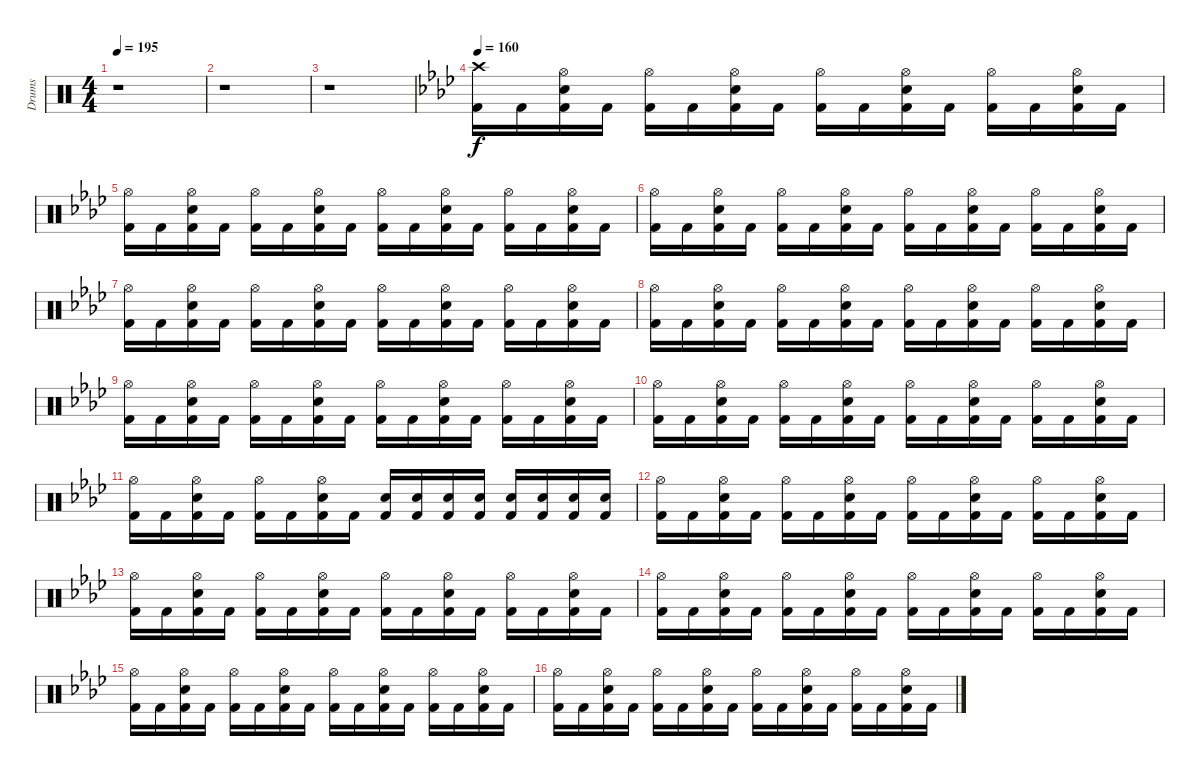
\track ("Drums" "Drums") {instrument percussion}
\staff {score}
\articulation defaults
\ts (4 4)
\tempo 195
\clef neutral
\ks c
r.1{dy f} |
r.1 |
r.1 |
\section ("" "")
\tempo 160
\ks fminor
("Kick (hit) 2" "Crash high (hit)").16 "Kick (hit) 2".16 ("Kick (hit) 2" "Electric Snare (hit)" "Hi-Hat (open)").16 "Kick (hit) 2".16 ("Kick (hit) 2" "Hi-Hat (open)").16 "Kick (hit) 2".16 ("Kick (hit) 2" "Electric Snare (hit)" "Hi-Hat (open)").16 "Kick (hit) 2".16 ("Kick (hit) 2" "Hi-Hat (open)").16 "Kick (hit) 2".16 ("Kick (hit) 2" "Electric Snare (hit)" "Hi-Hat (open)").16 "Kick (hit) 2".16 ("Kick (hit) 2" "Hi-Hat (open)").16 "Kick (hit) 2".16 ("Kick (hit) 2" "Electric Snare (hit)" "Hi-Hat (open)").16 "Kick (hit) 2".16 |
("Kick (hit) 2" "Hi-Hat (open)").16 "Kick (hit) 2".16 ("Kick (hit) 2" "Electric Snare (hit)" "Hi-Hat (open)").16 "Kick (hit) 2".16 ("Kick (hit) 2" "Hi-Hat (open)").16 "Kick (hit) 2".16 ("Kick (hit) 2" "Electric Snare (hit)" "Hi-Hat (open)").16 "Kick (hit) 2".16 ("Kick (hit) 2" "Hi-Hat (open)").16 "Kick (hit) 2".16 ("Kick (hit) 2" "Electric Snare (hit)" "Hi-Hat (open)").16 "Kick (hit) 2".16 ("Kick (hit) 2" "Hi-Hat (open)").16 "Kick (hit) 2".16 ("Kick (hit) 2" "Electric Snare (hit)" "Hi-Hat (open)").16 "Kick (hit) 2".16 |
("Kick (hit) 2" "Hi-Hat (open)").16 "Kick (hit) 2".16 ("Kick (hit) 2" "Electric Snare (hit)" "Hi-Hat (open)").16 "Kick (hit) 2".16 ("Kick (hit) 2" "Hi-Hat (open)").16 "Kick (hit) 2".16 ("Kick (hit) 2" "Electric Snare (hit)" "Hi-Hat (open)").16 "Kick (hit) 2".16 ("Kick (hit) 2" "Hi-Hat (open)").16 "Kick (hit) 2".16 ("Kick (hit) 2" "Electric Snare (hit)" "Hi-Hat (open)").16 "Kick (hit) 2".16 ("Kick (hit) 2" "Hi-Hat (open)").16 "Kick (hit) 2".16 ("Kick (hit) 2" "Electric Snare (hit)" "Hi-Hat (open)").16 "Kick (hit) 2".16 |
("Kick (hit) 2" "Hi-Hat (open)").16 "Kick (hit) 2".16 ("Kick (hit) 2" "Electric Snare (hit)" "Hi-Hat (open)").16 "Kick (hit) 2".16 ("Kick (hit) 2" "Hi-Hat (open)").16 "Kick (hit) 2".16 ("Kick (hit) 2" "Electric Snare (hit)" "Hi-Hat (open)").16 "Kick (hit) 2".16 ("Kick (hit) 2" "Hi-Hat (open)").16 "Kick (hit) 2".16 ("Kick (hit) 2" "Electric Snare (hit)" "Hi-Hat (open)").16 "Kick (hit) 2".16 ("Kick (hit) 2" "Hi-Hat (open)").16 "Kick (hit) 2".16 ("Kick (hit) 2" "Electric Snare (hit)" "Hi-Hat (open)").16 "Kick (hit) 2".16 |
("Kick (hit) 2" "Hi-Hat (open)").16 "Kick (hit) 2".16 ("Kick (hit) 2" "Electric Snare (hit)" "Hi-Hat (open)").16 "Kick (hit) 2".16 ("Kick (hit) 2" "Hi-Hat (open)").16 "Kick (hit) 2".16 ("Kick (hit) 2" "Electric Snare (hit)" "Hi-Hat (open)").16 "Kick (hit) 2".16 ("Kick (hit) 2" "Hi-Hat (open)").16 "Kick (hit) 2".16 ("Kick (hit) 2" "Electric Snare (hit)" "Hi-Hat (open)").16 "Kick (hit) 2".16 ("Kick (hit) 2" "Hi-Hat (open)").16 "Kick (hit) 2".16 ("Kick (hit) 2" "Electric Snare (hit)" "Hi-Hat (open)").16 "Kick (hit) 2".16 |
("Kick (hit) 2" "Hi-Hat (open)").16 "Kick (hit) 2".16 ("Kick (hit) 2" "Electric Snare (hit)" "Hi-Hat (open)").16 "Kick (hit) 2".16 ("Kick (hit) 2" "Hi-Hat (open)").16 "Kick (hit) 2".16 ("Kick (hit) 2" "Electric Snare (hit)" "Hi-Hat (open)").16 "Kick (hit) 2".16 ("Kick (hit) 2" "Hi-Hat (open)").16 "Kick (hit) 2".16 ("Kick (hit) 2" "Electric Snare (hit)" "Hi-Hat (open)").16 "Kick (hit) 2".16 ("Kick (hit) 2" "Hi-Hat (open)").16 "Kick (hit) 2".16 ("Kick (hit) 2" "Electric Snare (hit)" "Hi-Hat (open)").16 "Kick (hit) 2".16 |
("Kick (hit) 2" "Hi-Hat (open)").16 "Kick (hit) 2".16 ("Kick (hit) 2" "Electric Snare (hit)" "Hi-Hat (open)").16 "Kick (hit) 2".16 ("Kick (hit) 2" "Hi-Hat (open)").16 "Kick (hit) 2".16 ("Kick (hit) 2" "Electric Snare (hit)" "Hi-Hat (open)").16 "Kick (hit) 2".16 ("Kick (hit) 2" "Hi-Hat (open)").16 "Kick (hit) 2".16 ("Kick (hit) 2" "Electric Snare (hit)" "Hi-Hat (open)").16 "Kick (hit) 2".16 ("Kick (hit) 2" "Hi-Hat (open)").16 "Kick (hit) 2".16 ("Kick (hit) 2" "Electric Snare (hit)" "Hi-Hat (open)").16 "Kick (hit) 2".16 |
("Kick (hit) 2" "Hi-Hat (open)").16 "Kick (hit) 2".16 ("Kick (hit) 2" "Electric Snare (hit)" "Hi-Hat (open)").16 "Kick (hit) 2".16 ("Kick (hit) 2" "Hi-Hat (open)").16 "Kick (hit) 2".16 ("Kick (hit) 2" "Electric Snare (hit)" "Hi-Hat (open)").16 "Kick (hit) 2".16 ("Kick (hit) 2" "Electric Snare (hit)").16 ("Kick (hit) 2" "Electric Snare (hit)").16 ("Kick (hit) 2" "Electric Snare (hit)").16 ("Kick (hit) 2" "Electric Snare (hit)").16 ("Kick (hit) 2" "Electric Snare (hit)").16 ("Kick (hit) 2" "Electric Snare (hit)").16 ("Kick (hit) 2" "Electric Snare (hit)").16 ("Kick (hit) 2" "Electric Snare (hit)").16 |
("Kick (hit) 2" "Hi-Hat (open)").16 "Kick (hit) 2".16 ("Kick (hit) 2" "Electric Snare (hit)" "Hi-Hat (open)").16 "Kick (hit) 2".16 ("Kick (hit) 2" "Hi-Hat (open)").16 "Kick (hit) 2".16 ("Kick (hit) 2" "Electric Snare (hit)" "Hi-Hat (open)").16 "Kick (hit) 2".16 ("Kick (hit) 2" "Hi-Hat (open)").16 "Kick (hit) 2".16 ("Kick (hit) 2" "Electric Snare (hit)" "Hi-Hat (open)").16 "Kick (hit) 2".16 ("Kick (hit) 2" "Hi-Hat (open)").16 "Kick (hit) 2".16 ("Kick (hit) 2" "Electric Snare (hit)" "Hi-Hat (open)").16 "Kick (hit) 2".16 |
("Kick (hit) 2" "Hi-Hat (open)").16 "Kick (hit) 2".16 ("Kick (hit) 2" "Electric Snare (hit)" "Hi-Hat (open)").16 "Kick (hit) 2".16 ("Kick (hit) 2" "Hi-Hat (open)").16 "Kick (hit) 2".16 ("Kick (hit) 2" "Electric Snare (hit)" "Hi-Hat (open)").16 "Kick (hit) 2".16 ("Kick (hit) 2" "Hi-Hat (open)").16 "Kick (hit) 2".16 ("Kick (hit) 2" "Electric Snare (hit)" "Hi-Hat (open)").16 "Kick (hit) 2".16 ("Kick (hit) 2" "Hi-Hat (open)").16 "Kick (hit) 2".16 ("Kick (hit) 2" "Electric Snare (hit)" "Hi-Hat (open)").16 "Kick (hit) 2".16 |
("Kick (hit) 2" "Hi-Hat (open)").16 "Kick (hit) 2".16 ("Kick (hit) 2" "Electric Snare (hit)" "Hi-Hat (open)").16 "Kick (hit) 2".16 ("Kick (hit) 2" "Hi-Hat (open)").16 "Kick (hit) 2".16 ("Kick (hit) 2" "Electric Snare (hit)" "Hi-Hat (open)").16 "Kick (hit) 2".16 ("Kick (hit) 2" "Hi-Hat (open)").16 "Kick (hit) 2".16 ("Kick (hit) 2" "Electric Snare (hit)" "Hi-Hat (open)").16 "Kick (hit) 2".16 ("Kick (hit) 2" "Hi-Hat (open)").16 "Kick (hit) 2".16 ("Kick (hit) 2" "Electric Snare (hit)" "Hi-Hat (open)").16 "Kick (hit) 2".16 |
("Kick (hit) 2" "Hi-Hat (open)").16 "Kick (hit) 2".16 ("Kick (hit) 2" "Electric Snare (hit)" "Hi-Hat (open)").16 "Kick (hit) 2".16 ("Kick (hit) 2" "Hi-Hat (open)").16 "Kick (hit) 2".16 ("Kick (hit) 2" "Electric Snare (hit)" "Hi-Hat (open)").16 "Kick (hit) 2".16 ("Kick (hit) 2" "Hi-Hat (open)").16 "Kick (hit) 2".16 ("Kick (hit) 2" "Electric Snare (hit)" "Hi-Hat (open)").16 "Kick (hit) 2".16 ("Kick (hit) 2" "Hi-Hat (open)").16 "Kick (hit) 2".16 ("Kick (hit) 2" "Electric Snare (hit)" "Hi-Hat (open)").16 "Kick (hit) 2".16 |
("Kick (hit) 2" "Hi-Hat (open)").16 "Kick (hit) 2".16 ("Kick (hit) 2" "Electric Snare (hit)" "Hi-Hat (open)").16 "Kick (hit) 2".16 ("Kick (hit) 2" "Hi-Hat (open)").16 "Kick (hit) 2".16 ("Kick (hit) 2" "Electric Snare (hit)" "Hi-Hat (open)").16 "Kick (hit) 2".16 ("Kick (hit) 2" "Hi-Hat (open)").16 "Kick (hit) 2".16 ("Kick (hit) 2" "Electric Snare (hit)" "Hi-Hat (open)").16 "Kick (hit) 2".16 ("Kick (hit) 2" "Hi-Hat (open)").16 "Kick (hit) 2".16 ("Kick (hit) 2" "Electric Snare (hit)" "Hi-Hat (open)").16 "Kick (hit) 2".16
